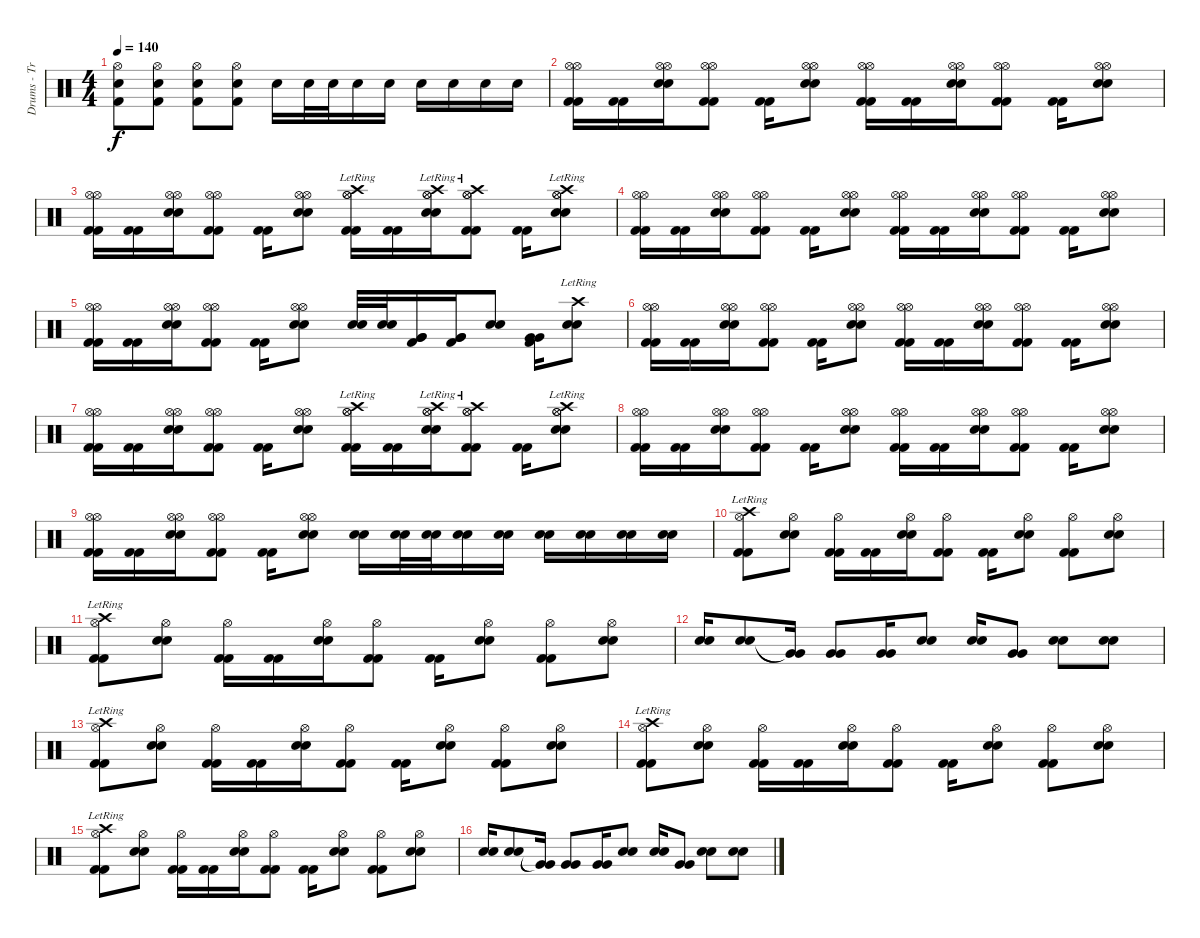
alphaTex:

\track ("Drums - Travis Barker" "Drums - Tr") {instrument percussion}
\staff {score}
\articulation defaults
\ts (4 4)
\tempo 140
\clef neutral
\ks c
("Hi-Hat (open)" "Snare (hit) 2" "Kick (hit) 2").8{dy f} ("Hi-Hat (open)" "Snare (hit) 2" "Kick (hit) 2").8 ("Hi-Hat (open)" "Snare (hit) 2" "Kick (hit) 2").8 ("Hi-Hat (open)" "Snare (hit) 2" "Kick (hit) 2").8 "Snare (hit) 2".16 "Snare (hit) 2".32 "Snare (hit) 2".32 "Snare (hit) 2".16 "Snare (hit) 2".16 "Snare (hit) 2".16 "Snare (hit) 2".16 "Snare (hit) 2".16 "Snare (hit) 2".16 |
("Kick (hit) 2" "Kick (hit) 2" "Hi-Hat (open)" "Hi-Hat (open)").16 ("Kick (hit) 2" "Kick (hit) 2").16 ("Snare (hit) 2" "Snare (hit) 2" "Hi-Hat (open)" "Hi-Hat (open)").16 ("Kick (hit) 2" "Kick (hit) 2" "Hi-Hat (open)" "Hi-Hat (open)").8 ("Kick (hit) 2" "Kick (hit) 2").16 ("Snare (hit) 2" "Snare (hit) 2" "Hi-Hat (open)" "Hi-Hat (open)").8 ("Kick (hit) 2" "Kick (hit) 2" "Hi-Hat (open)" "Hi-Hat (open)").16 ("Kick (hit) 2" "Kick (hit) 2").16 ("Snare (hit) 2" "Snare (hit) 2" "Hi-Hat (open)" "Hi-Hat (open)").16 ("Kick (hit) 2" "Kick (hit) 2" "Hi-Hat (open)" "Hi-Hat (open)").8 ("Kick (hit) 2" "Kick (hit) 2").16 ("Snare (hit) 2" "Snare (hit) 2" "Hi-Hat (open)" "Hi-Hat (open)").8 |
("Kick (hit) 2" "Kick (hit) 2" "Hi-Hat (open)" "Hi-Hat (open)").16 ("Kick (hit) 2" "Kick (hit) 2").16 ("Snare (hit) 2" "Snare (hit) 2" "Hi-Hat (open)" "Hi-Hat (open)").16 ("Kick (hit) 2" "Kick (hit) 2" "Hi-Hat (open)" "Hi-Hat (open)").8 ("Kick (hit) 2" "Kick (hit) 2").16 ("Snare (hit) 2" "Snare (hit) 2" "Hi-Hat (open)" "Hi-Hat (open)").8 ("Kick (hit) 2" "Kick (hit) 2" "Hi-Hat (open)" "Hi-Hat (open)" "Crash high (hit)"{lr}).16 ("Kick (hit) 2" "Kick (hit) 2").16 ("Snare (hit) 2" "Snare (hit) 2" "Hi-Hat (open)" "Hi-Hat (open)" "Crash high (hit)"{lr}).16 ("Kick (hit) 2" "Kick (hit) 2" "Hi-Hat (open)" "Hi-Hat (open)" "Crash high (hit)"{lr}).8 ("Kick (hit) 2" "Kick (hit) 2").16 ("Snare (hit) 2" "Snare (hit) 2" "Hi-Hat (open)" "Hi-Hat (open)" "Crash high (hit)"{lr}).8 |
("Kick (hit) 2" "Kick (hit) 2" "Hi-Hat (open)" "Hi-Hat (open)").16 ("Kick (hit) 2" "Kick (hit) 2").16 ("Snare (hit) 2" "Snare (hit) 2" "Hi-Hat (open)" "Hi-Hat (open)").16 ("Kick (hit) 2" "Kick (hit) 2" "Hi-Hat (open)" "Hi-Hat (open)").8 ("Kick (hit) 2" "Kick (hit) 2").16 ("Snare (hit) 2" "Snare (hit) 2" "Hi-Hat (open)" "Hi-Hat (open)").8 ("Kick (hit) 2" "Kick (hit) 2" "Hi-Hat (open)" "Hi-Hat (open)").16 ("Kick (hit) 2" "Kick (hit) 2").16 ("Snare (hit) 2" "Snare (hit) 2" "Hi-Hat (open)" "Hi-Hat (open)").16 ("Kick (hit) 2" "Kick (hit) 2" "Hi-Hat (open)" "Hi-Hat (open)").8 ("Kick (hit) 2" "Kick (hit) 2").16 ("Snare (hit) 2" "Snare (hit) 2" "Hi-Hat (open)" "Hi-Hat (open)").8 |
("Kick (hit) 2" "Kick (hit) 2" "Hi-Hat (open)" "Hi-Hat (open)").16 ("Kick (hit) 2" "Kick (hit) 2").16 ("Snare (hit) 2" "Snare (hit) 2" "Hi-Hat (open)" "Hi-Hat (open)").16 ("Kick (hit) 2" "Kick (hit) 2" "Hi-Hat (open)" "Hi-Hat (open)").8 ("Kick (hit) 2" "Kick (hit) 2").16 ("Snare (hit) 2" "Snare (hit) 2" "Hi-Hat (open)" "Hi-Hat (open)").8 ("Snare (hit) 2" "Snare (hit) 2").32 ("Snare (hit) 2" "Snare (hit) 2").32 ("Very Low Tom (hit)" "Very Low Tom (hit)" "Kick (hit) 2").16 ("Very Low Tom (hit)" "Very Low Tom (hit)" "Kick (hit) 2").16 ("Snare (hit) 2" "Snare (hit) 2").8 ("Very Low Tom (hit)" "Very Low Tom (hit)" "Kick (hit) 2").16 ("Snare (hit) 2" "Snare (hit) 2" "Crash high (hit)"{lr}).8 |
("Kick (hit) 2" "Kick (hit) 2" "Hi-Hat (open)" "Hi-Hat (open)").16 ("Kick (hit) 2" "Kick (hit) 2").16 ("Snare (hit) 2" "Snare (hit) 2" "Hi-Hat (open)" "Hi-Hat (open)").16 ("Kick (hit) 2" "Kick (hit) 2" "Hi-Hat (open)" "Hi-Hat (open)").8 ("Kick (hit) 2" "Kick (hit) 2").16 ("Snare (hit) 2" "Snare (hit) 2" "Hi-Hat (open)" "Hi-Hat (open)").8 ("Kick (hit) 2" "Kick (hit) 2" "Hi-Hat (open)" "Hi-Hat (open)").16 ("Kick (hit) 2" "Kick (hit) 2").16 ("Snare (hit) 2" "Snare (hit) 2" "Hi-Hat (open)" "Hi-Hat (open)").16 ("Kick (hit) 2" "Kick (hit) 2" "Hi-Hat (open)" "Hi-Hat (open)").8 ("Kick (hit) 2" "Kick (hit) 2").16 ("Snare (hit) 2" "Snare (hit) 2" "Hi-Hat (open)" "Hi-Hat (open)").8 |
("Kick (hit) 2" "Kick (hit) 2" "Hi-Hat (open)" "Hi-Hat (open)").16 ("Kick (hit) 2" "Kick (hit) 2").16 ("Snare (hit) 2" "Snare (hit) 2" "Hi-Hat (open)" "Hi-Hat (open)").16 ("Kick (hit) 2" "Kick (hit) 2" "Hi-Hat (open)" "Hi-Hat (open)").8 ("Kick (hit) 2" "Kick (hit) 2").16 ("Snare (hit) 2" "Snare (hit) 2" "Hi-Hat (open)" "Hi-Hat (open)").8 ("Kick (hit) 2" "Kick (hit) 2" "Hi-Hat (open)" "Hi-Hat (open)" "Crash high (hit)"{lr}).16 ("Kick (hit) 2" "Kick (hit) 2").16 ("Snare (hit) 2" "Snare (hit) 2" "Hi-Hat (open)" "Hi-Hat (open)" "Crash high (hit)"{lr}).16 ("Kick (hit) 2" "Kick (hit) 2" "Hi-Hat (open)" "Hi-Hat (open)" "Crash high (hit)"{lr}).8 ("Kick (hit) 2" "Kick (hit) 2").16 ("Snare (hit) 2" "Snare (hit) 2" "Hi-Hat (open)" "Hi-Hat (open)" "Crash high (hit)"{lr}).8 |
("Kick (hit) 2" "Kick (hit) 2" "Hi-Hat (open)" "Hi-Hat (open)").16 ("Kick (hit) 2" "Kick (hit) 2").16 ("Snare (hit) 2" "Snare (hit) 2" "Hi-Hat (open)" "Hi-Hat (open)").16 ("Kick (hit) 2" "Kick (hit) 2" "Hi-Hat (open)" "Hi-Hat (open)").8 ("Kick (hit) 2" "Kick (hit) 2").16 ("Snare (hit) 2" "Snare (hit) 2" "Hi-Hat (open)" "Hi-Hat (open)").8 ("Kick (hit) 2" "Kick (hit) 2" "Hi-Hat (open)" "Hi-Hat (open)").16 ("Kick (hit) 2" "Kick (hit) 2").16 ("Snare (hit) 2" "Snare (hit) 2" "Hi-Hat (open)" "Hi-Hat (open)").16 ("Kick (hit) 2" "Kick (hit) 2" "Hi-Hat (open)" "Hi-Hat (open)").8 ("Kick (hit) 2" "Kick (hit) 2").16 ("Snare (hit) 2" "Snare (hit) 2" "Hi-Hat (open)" "Hi-Hat (open)").8 |
("Kick (hit) 2" "Kick (hit) 2" "Hi-Hat (open)" "Hi-Hat (open)").16 ("Kick (hit) 2" "Kick (hit) 2").16 ("Snare (hit) 2" "Snare (hit) 2" "Hi-Hat (open)" "Hi-Hat (open)").16 ("Kick (hit) 2" "Kick (hit) 2" "Hi-Hat (open)" "Hi-Hat (open)").8 ("Kick (hit) 2" "Kick (hit) 2").16 ("Snare (hit) 2" "Snare (hit) 2" "Hi-Hat (open)" "Hi-Hat (open)").8 ("Snare (hit) 2" "Snare (hit) 2").16 ("Snare (hit) 2" "Snare (hit) 2").32 ("Snare (hit) 2" "Snare (hit) 2").32 ("Snare (hit) 2" "Snare (hit) 2").16 ("Snare (hit) 2" "Snare (hit) 2").16 ("Snare (hit) 2" "Snare (hit) 2").16 ("Snare (hit) 2" "Snare (hit) 2").16 ("Snare (hit) 2" "Snare (hit) 2").16 ("Snare (hit) 2" "Snare (hit) 2").16 |
("Kick (hit) 2" "Kick (hit) 2" "Hi-Hat (open)" "Crash high (hit)"{lr}).8 ("Snare (hit) 2" "Snare (hit) 2" "Hi-Hat (open)").8 ("Kick (hit) 2" "Kick (hit) 2" "Hi-Hat (open)").16 ("Kick (hit) 2" "Kick (hit) 2").16 ("Snare (hit) 2" "Snare (hit) 2" "Hi-Hat (open)").16 ("Kick (hit) 2" "Kick (hit) 2" "Hi-Hat (open)").8 ("Kick (hit) 2" "Kick (hit) 2").16 ("Snare (hit) 2" "Snare (hit) 2" "Hi-Hat (open)").8 ("Kick (hit) 2" "Kick (hit) 2" "Hi-Hat (open)").8 ("Snare (hit) 2" "Snare (hit) 2" "Hi-Hat (open)").8 |
("Kick (hit) 2" "Kick (hit) 2" "Hi-Hat (open)" "Crash high (hit)"{lr}).8 ("Snare (hit) 2" "Snare (hit) 2" "Hi-Hat (open)").8 ("Kick (hit) 2" "Kick (hit) 2" "Hi-Hat (open)").16 ("Kick (hit) 2" "Kick (hit) 2").16 ("Snare (hit) 2" "Snare (hit) 2" "Hi-Hat (open)").16 ("Kick (hit) 2" "Kick (hit) 2" "Hi-Hat (open)").8 ("Kick (hit) 2" "Kick (hit) 2").16 ("Snare (hit) 2" "Snare (hit) 2" "Hi-Hat (open)").8 ("Kick (hit) 2" "Kick (hit) 2" "Hi-Hat (open)").8 ("Snare (hit) 2" "Snare (hit) 2" "Hi-Hat (open)").8 |
("Snare (hit) 2" "Snare (hit) 2").16 ("Snare (hit) 2" "Snare (hit) 2").8 ("Very Low Tom (hit)"{t} "Very Low Tom (hit)"{t}).16 ("Very Low Tom (hit)" "Very Low Tom (hit)").8 ("Very Low Tom (hit)" "Very Low Tom (hit)").16 ("Snare (hit) 2" "Snare (hit) 2").8 ("Snare (hit) 2" "Snare (hit) 2").16 ("Very Low Tom (hit)" "Very Low Tom (hit)").8 ("Snare (hit) 2" "Snare (hit) 2").8 ("Snare (hit) 2" "Snare (hit) 2").8 |
("Kick (hit) 2" "Kick (hit) 2" "Hi-Hat (open)" "Crash high (hit)"{lr}).8 ("Snare (hit) 2" "Snare (hit) 2" "Hi-Hat (open)").8 ("Kick (hit) 2" "Kick (hit) 2" "Hi-Hat (open)").16 ("Kick (hit) 2" "Kick (hit) 2").16 ("Snare (hit) 2" "Snare (hit) 2" "Hi-Hat (open)").16 ("Kick (hit) 2" "Kick (hit) 2" "Hi-Hat (open)").8 ("Kick (hit) 2" "Kick (hit) 2").16 ("Snare (hit) 2" "Snare (hit) 2" "Hi-Hat (open)").8 ("Kick (hit) 2" "Kick (hit) 2" "Hi-Hat (open)").8 ("Snare (hit) 2" "Snare (hit) 2" "Hi-Hat (open)").8 |
("Kick (hit) 2" "Kick (hit) 2" "Hi-Hat (open)" "Crash high (hit)"{lr}).8 ("Snare (hit) 2" "Snare (hit) 2" "Hi-Hat (open)").8 ("Kick (hit) 2" "Kick (hit) 2" "Hi-Hat (open)").16 ("Kick (hit) 2" "Kick (hit) 2").16 ("Snare (hit) 2" "Snare (hit) 2" "Hi-Hat (open)").16 ("Kick (hit) 2" "Kick (hit) 2" "Hi-Hat (open)").8 ("Kick (hit) 2" "Kick (hit) 2").16 ("Snare (hit) 2" "Snare (hit) 2" "Hi-Hat (open)").8 ("Kick (hit) 2" "Kick (hit) 2" "Hi-Hat (open)").8 ("Snare (hit) 2" "Snare (hit) 2" "Hi-Hat (open)").8 |
("Kick (hit) 2" "Kick (hit) 2" "Hi-Hat (open)" "Crash high (hit)"{lr}).8 ("Snare (hit) 2" "Snare (hit) 2" "Hi-Hat (open)").8 ("Kick (hit) 2" "Kick (hit) 2" "Hi-Hat (open)").16 ("Kick (hit) 2" "Kick (hit) 2").16 ("Snare (hit) 2" "Snare (hit) 2" "Hi-Hat (open)").16 ("Kick (hit) 2" "Kick (hit) 2" "Hi-Hat (open)").8 ("Kick (hit) 2" "Kick (hit) 2").16 ("Snare (hit) 2" "Snare (hit) 2" "Hi-Hat (open)").8 ("Kick (hit) 2" "Kick (hit) 2" "Hi-Hat (open)").8 ("Snare (hit) 2" "Snare (hit) 2" "Hi-Hat (open)").8 |
("Snare (hit) 2" "Snare (hit) 2").16 ("Snare (hit) 2" "Snare (hit) 2").8 ("Very Low Tom (hit)"{t} "Very Low Tom (hit)"{t}).16 ("Very Low Tom (hit)" "Very Low Tom (hit)").8 ("Very Low Tom (hit)" "Very Low Tom (hit)").16 ("Snare (hit) 2" "Snare (hit) 2").8 ("Snare (hit) 2" "Snare (hit) 2").16 ("Very Low Tom (hit)" "Very Low Tom (hit)").8 ("Snare (hit) 2" "Snare (hit) 2").8 ("Snare (hit) 2" "Snare (hit) 2").8
